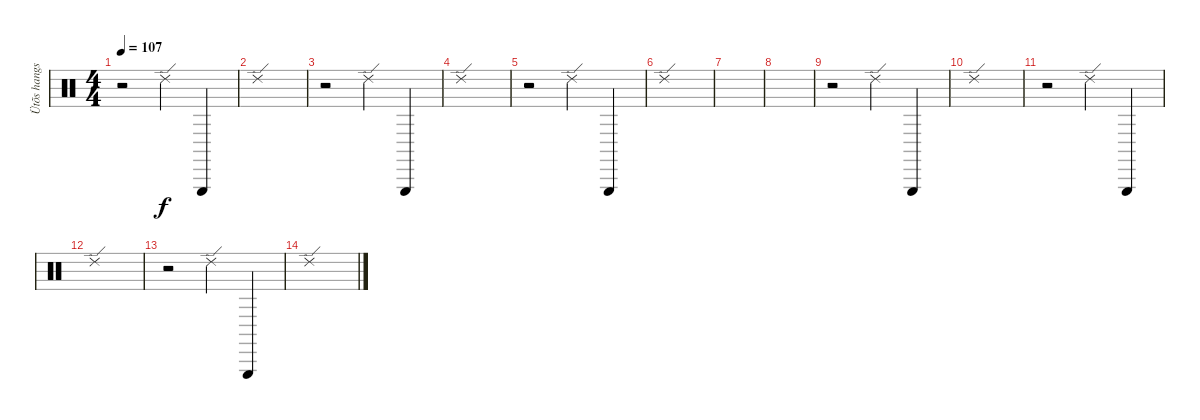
\track ("Ütõs hangszer" "Ütõs hangs") {instrument percussion}
\staff {score}
\articulation defaults
\ts (4 4)
\tempo 107
\clef neutral
\ks c
r.2{dy mp} "Ride (edge) 2".4{dy f} "Triangle (hit)".4 |
"Ride (edge) 2".1 |
r.2 "Ride (edge) 2".4 "Triangle (hit)".4 |
"Ride (edge) 2".1 |
r.2 "Ride (edge) 2".4 "Triangle (hit)".4 |
"Ride (edge) 2".1 |
|
|
r.2 "Ride (edge) 2".4 "Triangle (hit)".4 |
"Ride (edge) 2".1 |
r.2 "Ride (edge) 2".4 "Triangle (hit)".4 |
"Ride (edge) 2".1 |
r.2 "Ride (edge) 2".4 "Triangle (hit)".4 |
"Ride (edge) 2".1
